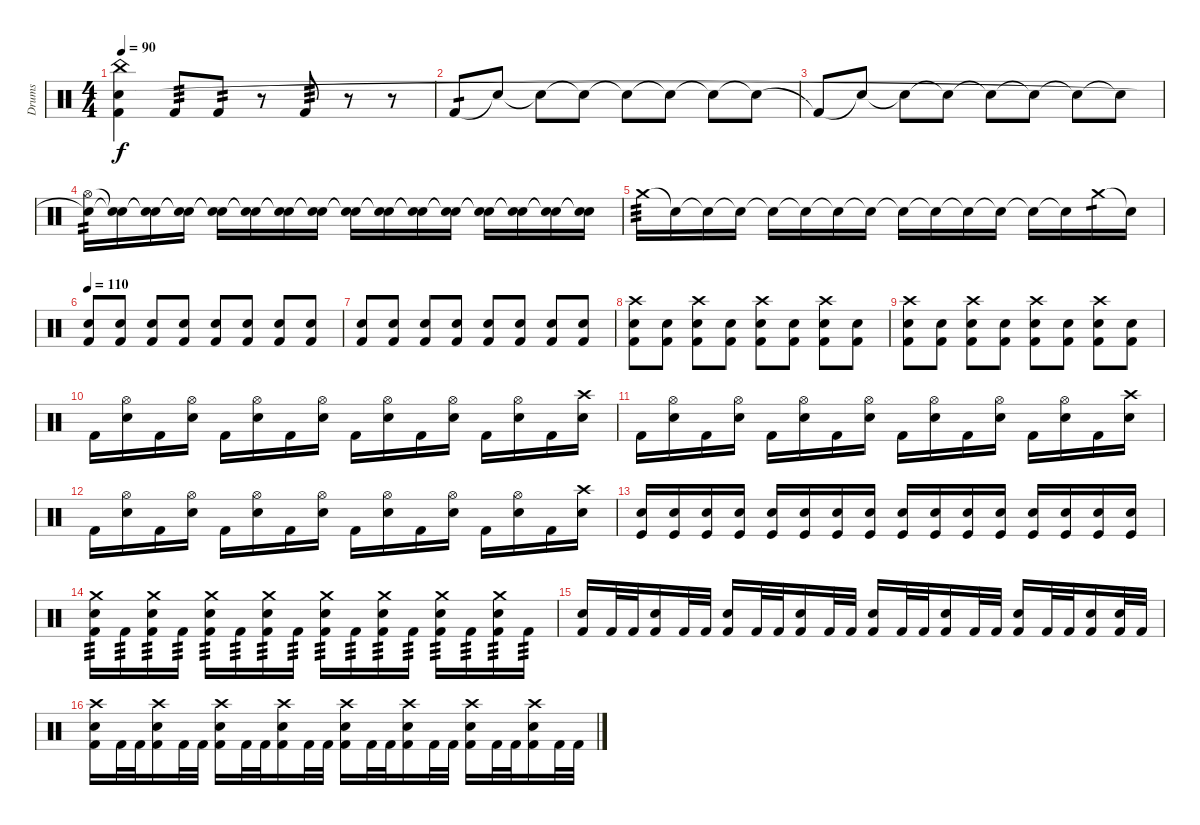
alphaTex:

\track ("Drums" "Drums") {instrument percussion}
\staff {score}
\articulation defaults
\ts (4 4)
\tempo 90
\clef neutral
\ks c
("China (hit)" "Electric Snare (hit)" "Kick (hit) 2").4{dy f} "Kick (hit) 2".8{tp 3} "Kick (hit) 2".8{tp 2} r.8 "Kick (hit) 2".8{tp 3} r.8 r.8 |
"Kick (hit) 2".8{tp 1} "Snare (hit)"{t}.8 "Snare (hit)"{t}.8 "Snare (hit)"{t}.8 "Snare (hit)"{t}.8 "Snare (hit)"{t}.8 "Snare (hit)"{t}.8 "Snare (hit)"{t}.8 |
"Kick (hit) 2"{t}.8 "Snare (hit)"{t}.8 "Snare (hit)"{t}.8 "Snare (hit)"{t}.8 "Snare (hit)"{t}.8 "Snare (hit)"{t}.8 "Snare (hit)"{t}.8 "Snare (hit)"{t}.8 |
("Hi-Hat (open)" "Snare (hit)"{t}).16{tp 2} ("Snare (hit)"{t} "Snare (hit)"{t}).16 ("Snare (hit)"{t} "Snare (hit)"{t}).16 ("Snare (hit)"{t} "Snare (hit)"{t}).16 ("Snare (hit)"{t} "Snare (hit)"{t}).16 ("Snare (hit)"{t} "Snare (hit)"{t}).16 ("Snare (hit)"{t} "Snare (hit)"{t}).16 ("Snare (hit)"{t} "Snare (hit)"{t}).16 ("Snare (hit)"{t} "Snare (hit)"{t}).16{volume 11} ("Snare (hit)"{t} "Snare (hit)"{t}).16 ("Snare (hit)"{t} "Snare (hit)"{t}).16 ("Snare (hit)"{t} "Snare (hit)"{t}).16 ("Snare (hit)"{t} "Snare (hit)"{t}).16{volume 6} ("Snare (hit)"{t} "Snare (hit)"{t}).16 ("Snare (hit)"{t} "Snare (hit)"{t}).16 ("Snare (hit)"{t} "Snare (hit)"{t}).16 |
"Crash medium (hit)".16{tp 3 volume 8} "Snare (hit)"{t}.16 "Snare (hit)"{t}.16 "Snare (hit)"{t}.16 "Snare (hit)"{t}.16 "Snare (hit)"{t}.16{volume 9} "Snare (hit)"{t}.16 "Snare (hit)"{t}.16 "Snare (hit)"{t}.16 "Snare (hit)"{t}.16 "Snare (hit)"{t}.16{volume 12} "Snare (hit)"{t}.16 "Snare (hit)"{t}.16 "Snare (hit)"{t}.16 "Crash medium (hit)".16{tp 1 volume 16} "Snare (hit)"{t}.16 |
\tempo 110
("Electric Snare (hit)" "Kick (hit) 2").8 ("Electric Snare (hit)" "Kick (hit) 2").8 ("Electric Snare (hit)" "Kick (hit) 2").8 ("Electric Snare (hit)" "Kick (hit) 2").8 ("Electric Snare (hit)" "Kick (hit) 2").8 ("Electric Snare (hit)" "Kick (hit) 2").8 ("Electric Snare (hit)" "Kick (hit) 2").8 ("Electric Snare (hit)" "Kick (hit) 2").8 |
("Electric Snare (hit)" "Kick (hit) 2").8 ("Electric Snare (hit)" "Kick (hit) 2").8 ("Electric Snare (hit)" "Kick (hit) 2").8 ("Electric Snare (hit)" "Kick (hit) 2").8 ("Electric Snare (hit)" "Kick (hit) 2").8 ("Electric Snare (hit)" "Kick (hit) 2").8 ("Electric Snare (hit)" "Kick (hit) 2").8 ("Electric Snare (hit)" "Kick (hit) 2").8 |
("Crash high (hit)" "Electric Snare (hit)" "Kick (hit) 2").8 ("Electric Snare (hit)" "Kick (hit) 2").8 ("Crash high (hit)" "Electric Snare (hit)" "Kick (hit) 2").8 ("Electric Snare (hit)" "Kick (hit) 2").8 ("Crash high (hit)" "Electric Snare (hit)" "Kick (hit) 2").8 ("Electric Snare (hit)" "Kick (hit) 2").8 ("Crash high (hit)" "Electric Snare (hit)" "Kick (hit) 2").8 ("Electric Snare (hit)" "Kick (hit) 2").8 |
("Crash high (hit)" "Electric Snare (hit)" "Kick (hit) 2").8 ("Electric Snare (hit)" "Kick (hit) 2").8 ("Crash high (hit)" "Electric Snare (hit)" "Kick (hit) 2").8 ("Electric Snare (hit)" "Kick (hit) 2").8 ("Crash high (hit)" "Electric Snare (hit)" "Kick (hit) 2").8 ("Electric Snare (hit)" "Kick (hit) 2").8 ("Crash high (hit)" "Electric Snare (hit)" "Kick (hit) 2").8 ("Electric Snare (hit)" "Kick (hit) 2").8 |
"Kick (hit) 2".16 ("Hi-Hat (open)" "Electric Snare (hit)").16 "Kick (hit) 2".16 ("Hi-Hat (open)" "Electric Snare (hit)").16 "Kick (hit) 2".16 ("Hi-Hat (open)" "Electric Snare (hit)").16 "Kick (hit) 2".16 ("Hi-Hat (open)" "Electric Snare (hit)").16 "Kick (hit) 2".16 ("Hi-Hat (open)" "Electric Snare (hit)").16 "Kick (hit) 2".16 ("Hi-Hat (open)" "Electric Snare (hit)").16 "Kick (hit) 2".16 ("Hi-Hat (open)" "Electric Snare (hit)").16 "Kick (hit) 2".16 ("Crash high (hit)" "Electric Snare (hit)").16 |
"Kick (hit) 2".16 ("Hi-Hat (open)" "Electric Snare (hit)").16 "Kick (hit) 2".16 ("Hi-Hat (open)" "Electric Snare (hit)").16 "Kick (hit) 2".16 ("Hi-Hat (open)" "Electric Snare (hit)").16 "Kick (hit) 2".16 ("Hi-Hat (open)" "Electric Snare (hit)").16 "Kick (hit) 2".16 ("Hi-Hat (open)" "Electric Snare (hit)").16 "Kick (hit) 2".16 ("Hi-Hat (open)" "Electric Snare (hit)").16 "Kick (hit) 2".16 ("Hi-Hat (open)" "Electric Snare (hit)").16 "Kick (hit) 2".16 ("Crash high (hit)" "Electric Snare (hit)").16 |
"Kick (hit) 2".16 ("Hi-Hat (open)" "Electric Snare (hit)").16 "Kick (hit) 2".16 ("Hi-Hat (open)" "Electric Snare (hit)").16 "Kick (hit) 2".16 ("Hi-Hat (open)" "Electric Snare (hit)").16 "Kick (hit) 2".16 ("Hi-Hat (open)" "Electric Snare (hit)").16 "Kick (hit) 2".16 ("Hi-Hat (open)" "Electric Snare (hit)").16 "Kick (hit) 2".16 ("Hi-Hat (open)" "Electric Snare (hit)").16 "Kick (hit) 2".16 ("Hi-Hat (open)" "Electric Snare (hit)").16 "Kick (hit) 2".16 ("Crash high (hit)" "Electric Snare (hit)").16 |
("Electric Snare (hit)" "Kick (hit)").16 ("Electric Snare (hit)" "Kick (hit)").16 ("Electric Snare (hit)" "Kick (hit)").16 ("Electric Snare (hit)" "Kick (hit)").16 ("Electric Snare (hit)" "Kick (hit)").16 ("Electric Snare (hit)" "Kick (hit)").16 ("Electric Snare (hit)" "Kick (hit)").16 ("Electric Snare (hit)" "Kick (hit)").16 ("Electric Snare (hit)" "Kick (hit)").16 ("Electric Snare (hit)" "Kick (hit)").16 ("Electric Snare (hit)" "Kick (hit)").16 ("Electric Snare (hit)" "Kick (hit)").16 ("Electric Snare (hit)" "Kick (hit)").16 ("Electric Snare (hit)" "Kick (hit)").16 ("Electric Snare (hit)" "Kick (hit)").16 ("Electric Snare (hit)" "Kick (hit)").16 |
("Crash medium (hit)" "Electric Snare (hit)" "Kick (hit) 2").16{tp 3} "Kick (hit) 2".16{tp 3} ("Crash medium (hit)" "Electric Snare (hit)" "Kick (hit) 2").16{tp 3} "Kick (hit) 2".16{tp 3} ("Crash medium (hit)" "Electric Snare (hit)" "Kick (hit) 2").16{tp 3} "Kick (hit) 2".16{tp 3} ("Crash medium (hit)" "Electric Snare (hit)" "Kick (hit) 2").16{tp 3} "Kick (hit) 2".16{tp 3} ("Crash medium (hit)" "Electric Snare (hit)" "Kick (hit) 2").16{tp 3} "Kick (hit) 2".16{tp 3} ("Crash medium (hit)" "Electric Snare (hit)" "Kick (hit) 2").16{tp 3} "Kick (hit) 2".16{tp 3} ("Crash medium (hit)" "Electric Snare (hit)" "Kick (hit) 2").16{tp 3} "Kick (hit) 2".16{tp 3} ("Crash medium (hit)" "Electric Snare (hit)" "Kick (hit) 2").16{tp 3} "Kick (hit) 2".16{tp 3} |
("Electric Snare (hit)" "Kick (hit) 2").16 "Kick (hit) 2".32 "Kick (hit) 2".32 ("Electric Snare (hit)" "Kick (hit) 2").16 "Kick (hit) 2".32 "Kick (hit) 2".32 ("Electric Snare (hit)" "Kick (hit) 2").16 "Kick (hit) 2".32 "Kick (hit) 2".32 ("Electric Snare (hit)" "Kick (hit) 2").16 "Kick (hit) 2".32 "Kick (hit) 2".32 ("Electric Snare (hit)" "Kick (hit) 2").16 "Kick (hit) 2".32 "Kick (hit) 2".32 ("Electric Snare (hit)" "Kick (hit) 2").16 "Kick (hit) 2".32 "Kick (hit) 2".32 ("Electric Snare (hit)" "Kick (hit) 2").16 "Kick (hit) 2".32 "Kick (hit) 2".32 ("Electric Snare (hit)" "Kick (hit) 2").16 ("Electric Snare (hit)" "Kick (hit) 2").32 "Kick (hit) 2".32 |
("Crash high (hit)" "Electric Snare (hit)" "Kick (hit) 2").16 "Kick (hit) 2".32 "Kick (hit) 2".32 ("Crash high (hit)" "Electric Snare (hit)" "Kick (hit) 2").16 "Kick (hit) 2".32 "Kick (hit) 2".32 ("Crash high (hit)" "Electric Snare (hit)" "Kick (hit) 2").16 "Kick (hit) 2".32 "Kick (hit) 2".32 ("Crash high (hit)" "Electric Snare (hit)" "Kick (hit) 2").16 "Kick (hit) 2".32 "Kick (hit) 2".32 ("Crash high (hit)" "Electric Snare (hit)" "Kick (hit) 2").16 "Kick (hit) 2".32 "Kick (hit) 2".32 ("Crash high (hit)" "Electric Snare (hit)" "Kick (hit) 2").16 "Kick (hit) 2".32 "Kick (hit) 2".32 ("Crash high (hit)" "Electric Snare (hit)" "Kick (hit) 2").16 "Kick (hit) 2".32 "Kick (hit) 2".32 ("Crash high (hit)" "Electric Snare (hit)" "Kick (hit) 2").16 "Kick (hit) 2".32 "Kick (hit) 2".32
